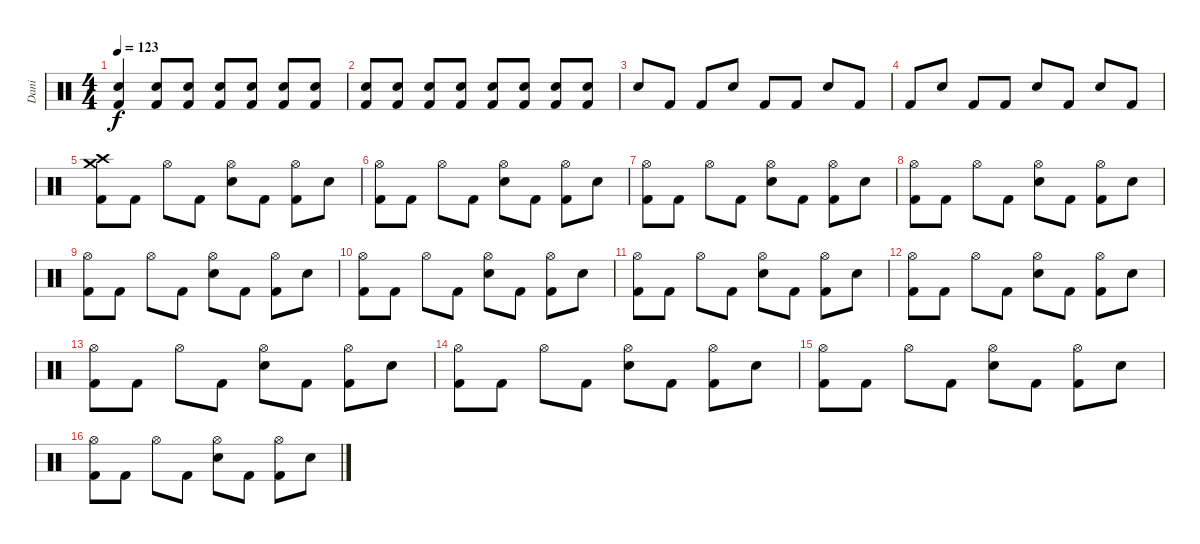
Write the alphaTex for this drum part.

\track ("Dani" "Dani") {instrument percussion}
\staff {score}
\articulation defaults
\ts (4 4)
\tempo 123
\clef neutral
\ks c
("Electric Snare (hit)" "Kick (hit) 2").4{dy f} ("Electric Snare (hit)" "Kick (hit) 2").8 ("Electric Snare (hit)" "Kick (hit) 2").8 ("Electric Snare (hit)" "Kick (hit) 2").8 ("Electric Snare (hit)" "Kick (hit) 2").8 ("Electric Snare (hit)" "Kick (hit) 2").8 ("Electric Snare (hit)" "Kick (hit) 2").8 |
("Electric Snare (hit)" "Kick (hit) 2").8 ("Electric Snare (hit)" "Kick (hit) 2").8 ("Electric Snare (hit)" "Kick (hit) 2").8 ("Electric Snare (hit)" "Kick (hit) 2").8 ("Electric Snare (hit)" "Kick (hit) 2").8 ("Electric Snare (hit)" "Kick (hit) 2").8 ("Electric Snare (hit)" "Kick (hit) 2").8 ("Electric Snare (hit)" "Kick (hit) 2").8 |
"Electric Snare (hit)".8 "Kick (hit) 2".8 "Kick (hit) 2".8 "Electric Snare (hit)".8 "Kick (hit) 2".8 "Kick (hit) 2".8 "Electric Snare (hit)".8 "Kick (hit) 2".8 |
"Kick (hit) 2".8 "Electric Snare (hit)".8 "Kick (hit) 2".8 "Kick (hit) 2".8 "Electric Snare (hit)".8 "Kick (hit) 2".8 "Electric Snare (hit)".8 "Kick (hit) 2".8 |
("Crash high (hit)" "Crash medium (hit)" "Kick (hit) 2").8 "Kick (hit) 2".8 "Hi-Hat (open)".8 "Kick (hit) 2".8 ("Hi-Hat (open)" "Electric Snare (hit)").8 "Kick (hit) 2".8 ("Hi-Hat (open)" "Kick (hit) 2").8 "Electric Snare (hit)".8 |
("Hi-Hat (open)" "Kick (hit) 2").8 "Kick (hit) 2".8 "Hi-Hat (open)".8 "Kick (hit) 2".8 ("Hi-Hat (open)" "Electric Snare (hit)").8 "Kick (hit) 2".8 ("Hi-Hat (open)" "Kick (hit) 2").8 "Electric Snare (hit)".8 |
("Hi-Hat (open)" "Kick (hit) 2").8 "Kick (hit) 2".8 "Hi-Hat (open)".8 "Kick (hit) 2".8 ("Hi-Hat (open)" "Electric Snare (hit)").8 "Kick (hit) 2".8 ("Hi-Hat (open)" "Kick (hit) 2").8 "Electric Snare (hit)".8 |
("Hi-Hat (open)" "Kick (hit) 2").8 "Kick (hit) 2".8 "Hi-Hat (open)".8 "Kick (hit) 2".8 ("Hi-Hat (open)" "Electric Snare (hit)").8 "Kick (hit) 2".8 ("Hi-Hat (open)" "Kick (hit) 2").8 "Electric Snare (hit)".8 |
("Hi-Hat (open)" "Kick (hit) 2").8 "Kick (hit) 2".8 "Hi-Hat (open)".8 "Kick (hit) 2".8 ("Hi-Hat (open)" "Electric Snare (hit)").8 "Kick (hit) 2".8 ("Hi-Hat (open)" "Kick (hit) 2").8 "Electric Snare (hit)".8 |
("Hi-Hat (open)" "Kick (hit) 2").8 "Kick (hit) 2".8 "Hi-Hat (open)".8 "Kick (hit) 2".8 ("Hi-Hat (open)" "Electric Snare (hit)").8 "Kick (hit) 2".8 ("Hi-Hat (open)" "Kick (hit) 2").8 "Electric Snare (hit)".8 |
("Hi-Hat (open)" "Kick (hit) 2").8 "Kick (hit) 2".8 "Hi-Hat (open)".8 "Kick (hit) 2".8 ("Hi-Hat (open)" "Electric Snare (hit)").8 "Kick (hit) 2".8 ("Hi-Hat (open)" "Kick (hit) 2").8 "Electric Snare (hit)".8 |
("Hi-Hat (open)" "Kick (hit) 2").8 "Kick (hit) 2".8 "Hi-Hat (open)".8 "Kick (hit) 2".8 ("Hi-Hat (open)" "Electric Snare (hit)").8 "Kick (hit) 2".8 ("Hi-Hat (open)" "Kick (hit) 2").8 "Electric Snare (hit)".8 |
("Hi-Hat (open)" "Kick (hit) 2").8 "Kick (hit) 2".8 "Hi-Hat (open)".8 "Kick (hit) 2".8 ("Hi-Hat (open)" "Electric Snare (hit)").8 "Kick (hit) 2".8 ("Hi-Hat (open)" "Kick (hit) 2").8 "Electric Snare (hit)".8 |
("Hi-Hat (open)" "Kick (hit) 2").8 "Kick (hit) 2".8 "Hi-Hat (open)".8 "Kick (hit) 2".8 ("Hi-Hat (open)" "Electric Snare (hit)").8 "Kick (hit) 2".8 ("Hi-Hat (open)" "Kick (hit) 2").8 "Electric Snare (hit)".8 |
("Hi-Hat (open)" "Kick (hit) 2").8 "Kick (hit) 2".8 "Hi-Hat (open)".8 "Kick (hit) 2".8 ("Hi-Hat (open)" "Electric Snare (hit)").8 "Kick (hit) 2".8 ("Hi-Hat (open)" "Kick (hit) 2").8 "Electric Snare (hit)".8 |
("Hi-Hat (open)" "Kick (hit) 2").8 "Kick (hit) 2".8 "Hi-Hat (open)".8 "Kick (hit) 2".8 ("Hi-Hat (open)" "Electric Snare (hit)").8 "Kick (hit) 2".8 ("Hi-Hat (open)" "Kick (hit) 2").8 "Electric Snare (hit)".8
